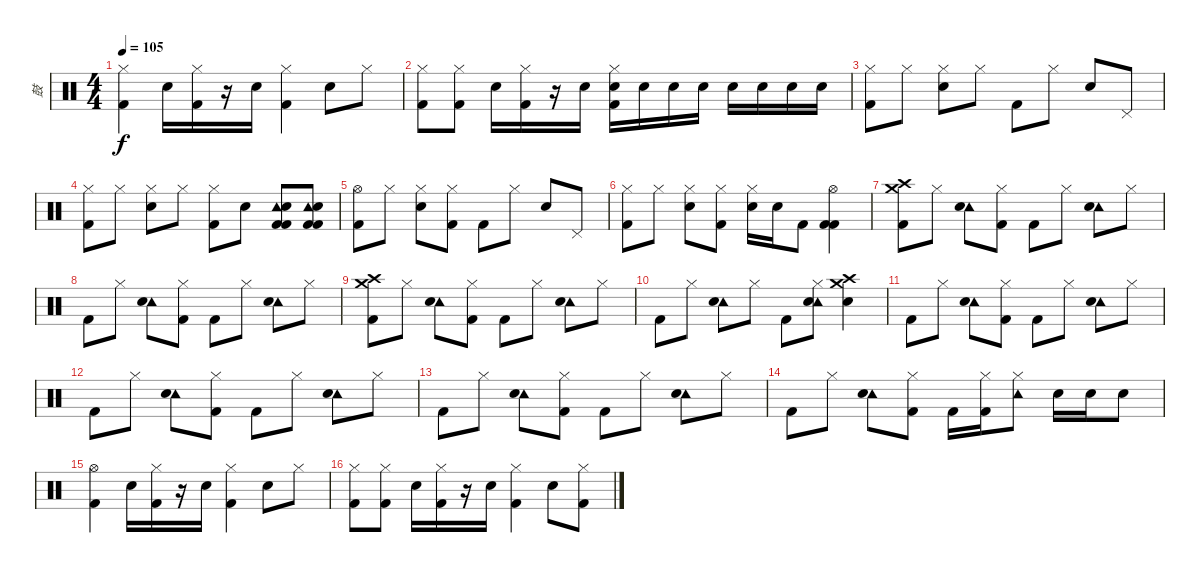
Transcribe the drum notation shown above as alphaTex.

\track ("鼓" "鼓") {instrument percussion}
\staff {score}
\articulation defaults
\ts (4 4)
\tempo 105
\clef neutral
\ks c
("Hi-Hat (closed)" "Kick (hit) 2").4{dy f} "Electric Snare (hit)".16 ("Hi-Hat (closed)" "Kick (hit) 2").16 r.16 "Electric Snare (hit)".16 ("Hi-Hat (closed)" "Kick (hit) 2").4 "Electric Snare (hit)".8 "Hi-Hat (closed)".8 |
("Hi-Hat (closed)" "Kick (hit) 2").8 ("Hi-Hat (closed)" "Kick (hit) 2").8 "Electric Snare (hit)".16 ("Hi-Hat (closed)" "Kick (hit) 2").16 r.16 "Electric Snare (hit)".16 ("Hi-Hat (closed)" "Electric Snare (hit)" "Kick (hit) 2").16 "Electric Snare (hit)".16 "Electric Snare (hit)".16 "Electric Snare (hit)".16 "Snare (hit) 2".16 "Snare (hit) 2".16 "Snare (hit) 2".16 "Snare (hit) 2".16 |
("Hi-Hat (closed)" "Kick (hit) 2").8 "Hi-Hat (closed)".8 ("Hi-Hat (closed)" "Electric Snare (hit)").8 "Hi-Hat (closed)".8 "Kick (hit) 2".8 "Hi-Hat (closed)".8 "Electric Snare (hit)".8 "Pedal Hi-Hat (hit)".8 |
("Hi-Hat (closed)" "Kick (hit) 2").8 "Hi-Hat (closed)".8 ("Hi-Hat (closed)" "Electric Snare (hit)").8 "Hi-Hat (closed)".8 ("Hi-Hat (closed)" "Kick (hit) 2").8 "Electric Snare (hit)".8 ("Tambourine (hit)" "Electric Snare (hit)" "Kick (hit) 2" "Kick (hit) 2").8 ("Tambourine (hit)" "Electric Snare (hit)" "Kick (hit) 2" "Kick (hit) 2").8 |
("Hi-Hat (open)" "Kick (hit) 2").8 "Hi-Hat (closed)".8 ("Hi-Hat (closed)" "Electric Snare (hit)").8 ("Hi-Hat (closed)" "Kick (hit) 2").8 "Kick (hit) 2".8 "Hi-Hat (closed)".8 "Electric Snare (hit)".8 "Pedal Hi-Hat (hit)".8 |
("Hi-Hat (closed)" "Kick (hit) 2").8 "Hi-Hat (closed)".8 ("Hi-Hat (closed)" "Electric Snare (hit)").8 ("Hi-Hat (closed)" "Kick (hit) 2").8 ("Hi-Hat (closed)" "Electric Snare (hit)").16 "Electric Snare (hit)".16 "Kick (hit) 2".8 ("Hi-Hat (open)" "Kick (hit) 2" "Kick (hit) 2").4 |
("Crash medium (hit)" "Crash high (hit)" "Kick (hit) 2").8 "Hi-Hat (closed)".8 ("Tambourine (hit)" "Electric Snare (hit)").8 ("Hi-Hat (closed)" "Kick (hit) 2").8 "Kick (hit) 2".8 "Hi-Hat (closed)".8 ("Tambourine (hit)" "Electric Snare (hit)").8 "Hi-Hat (closed)".8 |
"Kick (hit) 2".8 "Hi-Hat (closed)".8 ("Tambourine (hit)" "Electric Snare (hit)").8 ("Hi-Hat (closed)" "Kick (hit) 2").8 "Kick (hit) 2".8 "Hi-Hat (closed)".8 ("Tambourine (hit)" "Electric Snare (hit)").8 "Hi-Hat (closed)".8 |
("Crash high (hit)" "Crash medium (hit)" "Kick (hit) 2").8 "Hi-Hat (closed)".8 ("Tambourine (hit)" "Electric Snare (hit)").8 ("Hi-Hat (closed)" "Kick (hit) 2").8 "Kick (hit) 2".8 "Hi-Hat (closed)".8 ("Tambourine (hit)" "Electric Snare (hit)").8 "Hi-Hat (closed)".8 |
"Kick (hit) 2".8 "Hi-Hat (closed)".8 ("Tambourine (hit)" "Electric Snare (hit)").8 "Hi-Hat (closed)".8 "Kick (hit) 2".8 ("Hi-Hat (closed)" "Tambourine (hit)" "Electric Snare (hit)").8 ("Crash medium (hit)" "Crash high (hit)" "Electric Snare (hit)").4 |
"Kick (hit) 2".8 "Hi-Hat (closed)".8 ("Tambourine (hit)" "Electric Snare (hit)").8 ("Hi-Hat (closed)" "Kick (hit) 2").8 "Kick (hit) 2".8 "Hi-Hat (closed)".8 ("Tambourine (hit)" "Electric Snare (hit)").8 "Hi-Hat (closed)".8 |
"Kick (hit) 2".8 "Hi-Hat (closed)".8 ("Tambourine (hit)" "Electric Snare (hit)").8 ("Hi-Hat (closed)" "Kick (hit) 2").8 "Kick (hit) 2".8 "Hi-Hat (closed)".8 ("Tambourine (hit)" "Electric Snare (hit)").8 "Hi-Hat (closed)".8 |
"Kick (hit) 2".8 "Hi-Hat (closed)".8 ("Tambourine (hit)" "Electric Snare (hit)").8 ("Hi-Hat (closed)" "Kick (hit) 2").8 "Kick (hit) 2".8 "Hi-Hat (closed)".8 ("Tambourine (hit)" "Electric Snare (hit)").8 "Hi-Hat (closed)".8 |
"Kick (hit) 2".8 "Hi-Hat (closed)".8 ("Tambourine (hit)" "Electric Snare (hit)").8 ("Hi-Hat (closed)" "Kick (hit) 2").8 "Kick (hit) 2".16 ("Hi-Hat (closed)" "Kick (hit) 2").16 ("Hi-Hat (closed)" "Tambourine (hit)").8 "Electric Snare (hit)".16 "Electric Snare (hit)".16 "Electric Snare (hit)".8 |
("Hi-Hat (open)" "Kick (hit) 2").4 "Electric Snare (hit)".16 ("Hi-Hat (closed)" "Kick (hit) 2").16 r.16 "Electric Snare (hit)".16 ("Hi-Hat (closed)" "Kick (hit) 2").4 "Electric Snare (hit)".8 "Hi-Hat (closed)".8 |
("Hi-Hat (closed)" "Kick (hit) 2").8 ("Hi-Hat (closed)" "Kick (hit) 2").8 "Electric Snare (hit)".16 ("Hi-Hat (closed)" "Kick (hit) 2").16 r.16 "Electric Snare (hit)".16 ("Hi-Hat (closed)" "Kick (hit) 2").4 "Electric Snare (hit)".8 ("Hi-Hat (closed)" "Kick (hit) 2").8
